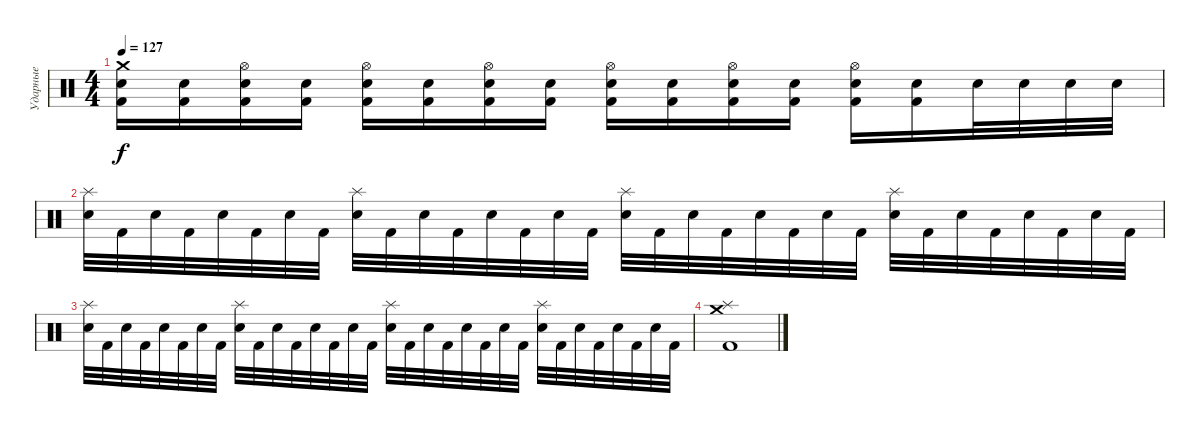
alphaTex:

\track ("Ударные" "Ударные") {instrument percussion bank 1}
\staff {score}
\articulation defaults
\ts (4 4)
\tempo 127
\clef neutral
\ks c
("Crash medium (hit)" "Electric Snare (hit)" "Kick (hit) 2").16{dy f} ("Electric Snare (hit)" "Kick (hit) 2").16 ("Hi-Hat (open)" "Electric Snare (hit)" "Kick (hit) 2").16 ("Electric Snare (hit)" "Kick (hit) 2").16 ("Hi-Hat (open)" "Electric Snare (hit)" "Kick (hit) 2").16 ("Electric Snare (hit)" "Kick (hit) 2").16 ("Hi-Hat (open)" "Electric Snare (hit)" "Kick (hit) 2").16 ("Electric Snare (hit)" "Kick (hit) 2").16 ("Hi-Hat (open)" "Electric Snare (hit)" "Kick (hit) 2").16 ("Electric Snare (hit)" "Kick (hit) 2").16 ("Hi-Hat (open)" "Electric Snare (hit)" "Kick (hit) 2").16 ("Electric Snare (hit)" "Kick (hit) 2").16 ("Hi-Hat (open)" "Electric Snare (hit)" "Kick (hit) 2").16 ("Electric Snare (hit)" "Kick (hit) 2").16 "Electric Snare (hit)".32 "Electric Snare (hit)".32 "Electric Snare (hit)".32 "Electric Snare (hit)".32 |
("Splash (hit)" "Electric Snare (hit)").32 "Kick (hit) 2".32 "Electric Snare (hit)".32 "Kick (hit) 2".32 "Electric Snare (hit)".32 "Kick (hit) 2".32 "Electric Snare (hit)".32 "Kick (hit) 2".32 ("Splash (hit)" "Electric Snare (hit)").32 "Kick (hit) 2".32 "Electric Snare (hit)".32 "Kick (hit) 2".32 "Electric Snare (hit)".32 "Kick (hit) 2".32 "Electric Snare (hit)".32 "Kick (hit) 2".32 ("Splash (hit)" "Electric Snare (hit)").32 "Kick (hit) 2".32 "Electric Snare (hit)".32 "Kick (hit) 2".32 "Electric Snare (hit)".32 "Kick (hit) 2".32 "Electric Snare (hit)".32 "Kick (hit) 2".32 ("Splash (hit)" "Electric Snare (hit)").32 "Kick (hit) 2".32 "Electric Snare (hit)".32 "Kick (hit) 2".32 "Electric Snare (hit)".32 "Kick (hit) 2".32 "Electric Snare (hit)".32 "Kick (hit) 2".32 |
("Splash (hit)" "Electric Snare (hit)").32 "Kick (hit) 2".32 "Electric Snare (hit)".32 "Kick (hit) 2".32 "Electric Snare (hit)".32 "Kick (hit) 2".32 "Electric Snare (hit)".32 "Kick (hit) 2".32 ("Splash (hit)" "Electric Snare (hit)").32 "Kick (hit) 2".32 "Electric Snare (hit)".32 "Kick (hit) 2".32 "Electric Snare (hit)".32 "Kick (hit) 2".32 "Electric Snare (hit)".32 "Kick (hit) 2".32 ("Splash (hit)" "Electric Snare (hit)").32 "Kick (hit) 2".32 "Electric Snare (hit)".32 "Kick (hit) 2".32 "Electric Snare (hit)".32 "Kick (hit) 2".32 "Electric Snare (hit)".32 "Kick (hit) 2".32 ("Splash (hit)" "Electric Snare (hit)").32 "Kick (hit) 2".32 "Electric Snare (hit)".32 "Kick (hit) 2".32 "Electric Snare (hit)".32 "Kick (hit) 2".32 "Electric Snare (hit)".32 "Kick (hit) 2".32 |
("Crash medium (hit)" "Splash (hit)" "Kick (hit) 2").1
